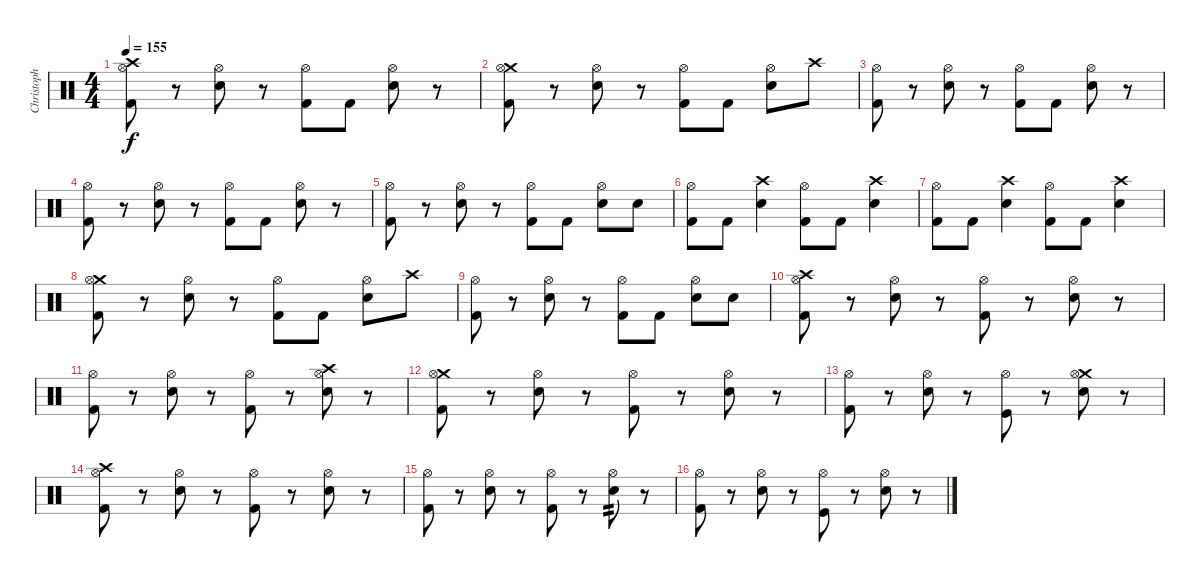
\track ("Christoph \"Doom\" Schneider" "Christoph ") {instrument percussion}
\staff {score}
\articulation defaults
\ts (4 4)
\tempo 155
\clef neutral
\ks c
("Kick (hit) 2" "Crash high (hit)" "Hi-Hat (open)").8{dy f} r.8 ("Electric Snare (hit)" "Hi-Hat (open)").8 r.8 ("Kick (hit) 2" "Hi-Hat (open)").8 "Kick (hit) 2".8 ("Electric Snare (hit)" "Hi-Hat (open)").8 r.8 |
("Kick (hit) 2" "Crash medium (hit)" "Hi-Hat (open)").8 r.8 ("Electric Snare (hit)" "Hi-Hat (open)").8 r.8 ("Kick (hit) 2" "Hi-Hat (open)").8 "Kick (hit) 2".8 ("Electric Snare (hit)" "Hi-Hat (open)").8 "Crash high (hit)".8 |
("Kick (hit) 2" "Hi-Hat (open)").8 r.8 ("Electric Snare (hit)" "Hi-Hat (open)").8 r.8 ("Kick (hit) 2" "Hi-Hat (open)").8 "Kick (hit) 2".8 ("Electric Snare (hit)" "Hi-Hat (open)").8 r.8 |
("Kick (hit) 2" "Hi-Hat (open)").8 r.8 ("Electric Snare (hit)" "Hi-Hat (open)").8 r.8 ("Kick (hit) 2" "Hi-Hat (open)").8 "Kick (hit) 2".8 ("Electric Snare (hit)" "Hi-Hat (open)").8 r.8 |
("Kick (hit) 2" "Hi-Hat (open)").8 r.8 ("Electric Snare (hit)" "Hi-Hat (open)").8 r.8 ("Kick (hit) 2" "Hi-Hat (open)").8 "Kick (hit) 2".8 ("Electric Snare (hit)" "Hi-Hat (open)").8 "Electric Snare (hit)".8 |
("Kick (hit) 2" "Hi-Hat (open)").8 "Kick (hit) 2".8 ("Crash high (hit)" "Electric Snare (hit)").4 ("Kick (hit) 2" "Hi-Hat (open)").8 "Kick (hit) 2".8 ("Crash high (hit)" "Electric Snare (hit)").4 |
("Kick (hit) 2" "Hi-Hat (open)").8 "Kick (hit) 2".8 ("Crash high (hit)" "Electric Snare (hit)").4 ("Kick (hit) 2" "Hi-Hat (open)").8 "Kick (hit) 2".8 ("Crash high (hit)" "Electric Snare (hit)").4 |
("Kick (hit) 2" "Crash medium (hit)" "Hi-Hat (open)").8 r.8 ("Electric Snare (hit)" "Hi-Hat (open)").8 r.8 ("Kick (hit) 2" "Hi-Hat (open)").8 "Kick (hit) 2".8 ("Electric Snare (hit)" "Hi-Hat (open)").8 "Crash high (hit)".8 |
("Kick (hit) 2" "Hi-Hat (open)").8 r.8 ("Electric Snare (hit)" "Hi-Hat (open)").8 r.8 ("Kick (hit) 2" "Hi-Hat (open)").8 "Kick (hit) 2".8 ("Electric Snare (hit)" "Hi-Hat (open)").8 "Electric Snare (hit)".8 |
("Kick (hit) 2" "Crash high (hit)" "Hi-Hat (open)").8 r.8 ("Electric Snare (hit)" "Hi-Hat (open)").8 r.8 ("Kick (hit) 2" "Hi-Hat (open)").8 r.8 ("Electric Snare (hit)" "Hi-Hat (open)").8 r.8 |
("Kick (hit) 2" "Hi-Hat (open)").8 r.8 ("Electric Snare (hit)" "Hi-Hat (open)").8 r.8 ("Kick (hit) 2" "Hi-Hat (open)").8 r.8 ("Electric Snare (hit)" "Crash high (hit)" "Hi-Hat (open)").8 r.8 |
("Kick (hit) 2" "Crash medium (hit)" "Hi-Hat (open)").8 r.8 ("Electric Snare (hit)" "Hi-Hat (open)").8 r.8 ("Kick (hit) 2" "Hi-Hat (open)").8 r.8 ("Electric Snare (hit)" "Hi-Hat (open)").8 r.8 |
("Kick (hit) 2" "Hi-Hat (open)").8 r.8 ("Electric Snare (hit)" "Hi-Hat (open)").8 r.8 ("Kick (hit)" "Hi-Hat (open)").8 r.8 ("Electric Snare (hit)" "Crash medium (hit)" "Hi-Hat (open)").8 r.8 |
("Kick (hit) 2" "Crash high (hit)" "Hi-Hat (open)").8 r.8 ("Electric Snare (hit)" "Hi-Hat (open)").8 r.8 ("Kick (hit) 2" "Hi-Hat (open)").8 r.8 ("Electric Snare (hit)" "Hi-Hat (open)").8 r.8 |
("Kick (hit) 2" "Hi-Hat (open)").8 r.8 ("Electric Snare (hit)" "Hi-Hat (open)").8 r.8 ("Kick (hit) 2" "Hi-Hat (open)").8 r.8 ("Electric Snare (hit)" "Hi-Hat (open)").8{tp 2} r.8 |
("Kick (hit) 2" "Hi-Hat (open)").8 r.8 ("Electric Snare (hit)" "Hi-Hat (open)").8 r.8 ("Kick (hit)" "Hi-Hat (open)").8 r.8 ("Electric Snare (hit)" "Hi-Hat (open)").8 r.8
